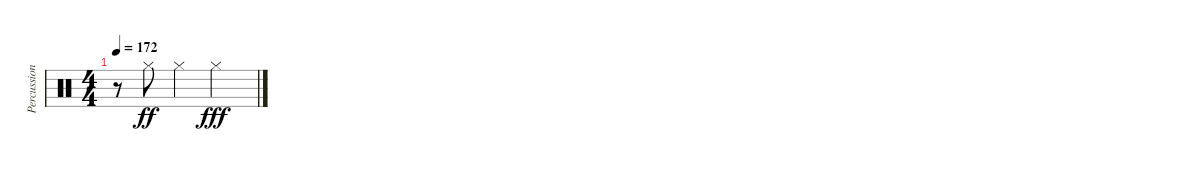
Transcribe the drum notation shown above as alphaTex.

\track ("Percussion" "Percussion") {solo instrument percussion}
\staff {score}
\articulation defaults
\ts (4 4)
\tempo 172
\clef neutral
\ks c
r.8{dy f} "Hi-Hat (closed)".8{dy ff} "Hi-Hat (closed)".4 "Hi-Hat (closed)".2{dy fff}
